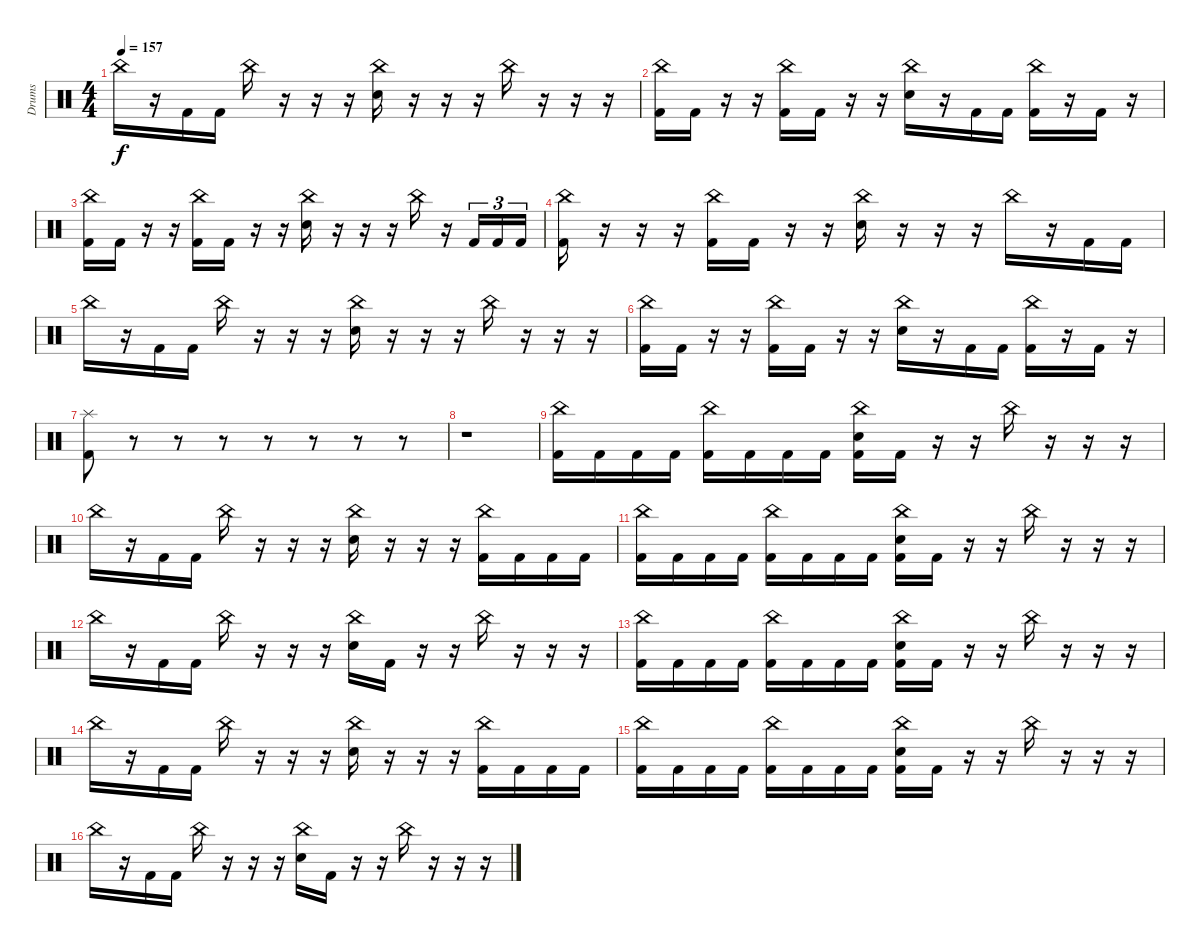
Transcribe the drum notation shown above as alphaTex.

\track ("Drums" "Drums") {instrument percussion}
\staff {score}
\articulation defaults
\ts (4 4)
\tempo 157
\clef neutral
\ks c "China (hit)".16{dy f}
r.16 "Kick (hit) 2".16 "Kick (hit) 2".16 "China (hit)".16 r.16 r.16 r.16 ("China (hit)" "Electric Snare (hit)").16 r.16 r.16 r.16 "China (hit)".16 r.16 r.16 r.16 |
("China (hit)" "Kick (hit) 2").16 "Kick (hit) 2".16 r.16 r.16 ("China (hit)" "Kick (hit) 2").16 "Kick (hit) 2".16 r.16 r.16 ("China (hit)" "Electric Snare (hit)").16 r.16 "Kick (hit) 2".16 "Kick (hit) 2".16 ("China (hit)" "Kick (hit) 2").16 r.16 "Kick (hit) 2".16 r.16 |
("China (hit)" "Kick (hit) 2").16 "Kick (hit) 2".16 r.16 r.16 ("China (hit)" "Kick (hit) 2").16 "Kick (hit) 2".16 r.16 r.16 ("China (hit)" "Electric Snare (hit)").16 r.16 r.16 r.16 "China (hit)".16 r.16 "Kick (hit) 2".16{tu (3 2)} "Kick (hit) 2".16{tu (3 2)} "Kick (hit) 2".16{tu (3 2)} |
("China (hit)" "Kick (hit) 2").16 r.16 r.16 r.16 ("China (hit)" "Kick (hit) 2").16 "Kick (hit) 2".16 r.16 r.16 ("China (hit)" "Electric Snare (hit)").16 r.16 r.16 r.16 "China (hit)".16 r.16 "Kick (hit) 2".16 "Kick (hit) 2".16 |
"China (hit)".16 r.16 "Kick (hit) 2".16 "Kick (hit) 2".16 "China (hit)".16 r.16 r.16 r.16 ("China (hit)" "Electric Snare (hit)").16 r.16 r.16 r.16 "China (hit)".16 r.16 r.16 r.16 |
("China (hit)" "Kick (hit) 2").16 "Kick (hit) 2".16 r.16 r.16 ("China (hit)" "Kick (hit) 2").16 "Kick (hit) 2".16 r.16 r.16 ("China (hit)" "Electric Snare (hit)").16 r.16 "Kick (hit) 2".16 "Kick (hit) 2".16 ("China (hit)" "Kick (hit) 2").16 r.16 "Kick (hit) 2".16 r.16 |
("Splash (hit)" "Kick (hit) 2").8 r.8 r.8 r.8 r.8 r.8 r.8 r.8 |
r.1 |
("China (hit)" "Kick (hit) 2").16 "Kick (hit) 2".16 "Kick (hit) 2".16 "Kick (hit) 2".16 ("China (hit)" "Kick (hit) 2").16 "Kick (hit) 2".16 "Kick (hit) 2".16 "Kick (hit) 2".16 ("China (hit)" "Electric Snare (hit)" "Kick (hit) 2").16 "Kick (hit) 2".16 r.16 r.16 "China (hit)".16 r.16 r.16 r.16 |
"China (hit)".16 r.16 "Kick (hit) 2".16 "Kick (hit) 2".16 "China (hit)".16 r.16 r.16 r.16 ("China (hit)" "Electric Snare (hit)").16 r.16 r.16 r.16 ("China (hit)" "Kick (hit) 2").16 "Kick (hit) 2".16 "Kick (hit) 2".16 "Kick (hit) 2".16 |
("China (hit)" "Kick (hit) 2").16 "Kick (hit) 2".16 "Kick (hit) 2".16 "Kick (hit) 2".16 ("China (hit)" "Kick (hit) 2").16 "Kick (hit) 2".16 "Kick (hit) 2".16 "Kick (hit) 2".16 ("China (hit)" "Electric Snare (hit)" "Kick (hit) 2").16 "Kick (hit) 2".16 r.16 r.16 "China (hit)".16 r.16 r.16 r.16 |
"China (hit)".16 r.16 "Kick (hit) 2".16 "Kick (hit) 2".16 "China (hit)".16 r.16 r.16 r.16 ("China (hit)" "Electric Snare (hit)").16 "Kick (hit) 2".16 r.16 r.16 "China (hit)".16 r.16 r.16 r.16 |
("China (hit)" "Kick (hit) 2").16 "Kick (hit) 2".16 "Kick (hit) 2".16 "Kick (hit) 2".16 ("China (hit)" "Kick (hit) 2").16 "Kick (hit) 2".16 "Kick (hit) 2".16 "Kick (hit) 2".16 ("China (hit)" "Electric Snare (hit)" "Kick (hit) 2").16 "Kick (hit) 2".16 r.16 r.16 "China (hit)".16 r.16 r.16 r.16 |
"China (hit)".16 r.16 "Kick (hit) 2".16 "Kick (hit) 2".16 "China (hit)".16 r.16 r.16 r.16 ("China (hit)" "Electric Snare (hit)").16 r.16 r.16 r.16 ("China (hit)" "Kick (hit) 2").16 "Kick (hit) 2".16 "Kick (hit) 2".16 "Kick (hit) 2".16 |
("China (hit)" "Kick (hit) 2").16 "Kick (hit) 2".16 "Kick (hit) 2".16 "Kick (hit) 2".16 ("China (hit)" "Kick (hit) 2").16 "Kick (hit) 2".16 "Kick (hit) 2".16 "Kick (hit) 2".16 ("China (hit)" "Electric Snare (hit)" "Kick (hit) 2").16 "Kick (hit) 2".16 r.16 r.16 "China (hit)".16 r.16 r.16 r.16 |
"China (hit)".16 r.16 "Kick (hit) 2".16 "Kick (hit) 2".16 "China (hit)".16 r.16 r.16 r.16 ("China (hit)" "Electric Snare (hit)").16 "Kick (hit) 2".16 r.16 r.16 "China (hit)".16 r.16 r.16 r.16
